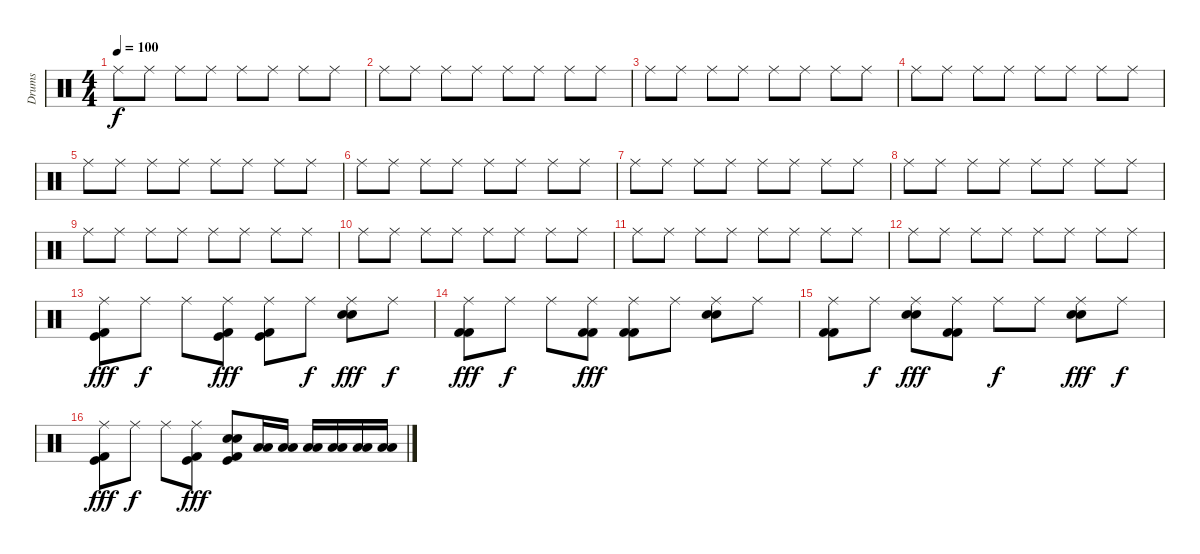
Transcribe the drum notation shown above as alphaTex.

\track ("Drums" "Drums") {instrument percussion}
\staff {score}
\articulation defaults
\ts (4 4)
\tempo 100
\clef neutral
\ks c "Ride (middle)".8{dy f} "Ride (middle)".8 "Ride (middle)".8 "Ride (middle)".8 "Ride (middle)".8 "Ride (middle)".8 "Ride (middle)".8 "Ride (middle)".8
|
"Ride (middle)".8 "Ride (middle)".8 "Ride (middle)".8 "Ride (middle)".8 "Ride (middle)".8 "Ride (middle)".8 "Ride (middle)".8 "Ride (middle)".8 |
"Ride (middle)".8 "Ride (middle)".8 "Ride (middle)".8 "Ride (middle)".8 "Ride (middle)".8 "Ride (middle)".8 "Ride (middle)".8 "Ride (middle)".8 |
"Ride (middle)".8 "Ride (middle)".8 "Ride (middle)".8 "Ride (middle)".8 "Ride (middle)".8 "Ride (middle)".8 "Ride (middle)".8 "Ride (middle)".8 |
"Ride (middle)".8 "Ride (middle)".8 "Ride (middle)".8 "Ride (middle)".8 "Ride (middle)".8 "Ride (middle)".8 "Ride (middle)".8 "Ride (middle)".8 |
"Ride (middle)".8 "Ride (middle)".8 "Ride (middle)".8 "Ride (middle)".8 "Ride (middle)".8 "Ride (middle)".8 "Ride (middle)".8 "Ride (middle)".8 |
"Ride (middle)".8 "Ride (middle)".8 "Ride (middle)".8 "Ride (middle)".8 "Ride (middle)".8 "Ride (middle)".8 "Ride (middle)".8 "Ride (middle)".8 |
"Ride (middle)".8 "Ride (middle)".8 "Ride (middle)".8 "Ride (middle)".8 "Ride (middle)".8 "Ride (middle)".8 "Ride (middle)".8 "Ride (middle)".8 |
"Ride (middle)".8 "Ride (middle)".8 "Ride (middle)".8 "Ride (middle)".8 "Ride (middle)".8 "Ride (middle)".8 "Ride (middle)".8 "Ride (middle)".8 |
"Ride (middle)".8 "Ride (middle)".8 "Ride (middle)".8 "Ride (middle)".8 "Ride (middle)".8 "Ride (middle)".8 "Ride (middle)".8 "Ride (middle)".8 |
"Ride (middle)".8 "Ride (middle)".8 "Ride (middle)".8 "Ride (middle)".8 "Ride (middle)".8 "Ride (middle)".8 "Ride (middle)".8 "Ride (middle)".8 |
"Ride (middle)".8 "Ride (middle)".8 "Ride (middle)".8 "Ride (middle)".8 "Ride (middle)".8 "Ride (middle)".8 "Ride (middle)".8 "Ride (middle)".8 |
("Ride (middle)" "Kick (hit) 2" "Kick (hit)").8{dy fff} "Ride (middle)".8{dy f} "Ride (middle)".8 ("Ride (middle)" "Kick (hit) 2" "Kick (hit)").8{dy fff} ("Ride (middle)" "Kick (hit) 2" "Kick (hit)").8 "Ride (middle)".8{dy f} ("Ride (middle)" "Electric Snare (hit)" "Electric Snare (hit)").8{dy fff} "Ride (middle)".8{dy f} |
("Ride (middle)" "Kick (hit) 2" "Kick (hit) 2").8{dy fff} "Ride (middle)".8{dy f} "Ride (middle)".8 ("Ride (middle)" "Kick (hit) 2" "Kick (hit) 2").8{dy fff} ("Ride (middle)" "Kick (hit) 2" "Kick (hit) 2").8 "Ride (middle)".8 ("Ride (middle)" "Electric Snare (hit)" "Electric Snare (hit)").8 "Ride (middle)".8 |
("Ride (middle)" "Kick (hit) 2" "Kick (hit) 2").8 "Ride (middle)".8{dy f} ("Ride (middle)" "Electric Snare (hit)" "Electric Snare (hit)").8{dy fff} ("Ride (middle)" "Kick (hit) 2" "Kick (hit) 2").8 "Ride (middle)".8{dy f} "Ride (middle)".8 ("Ride (middle)" "Electric Snare (hit)" "Electric Snare (hit)").8{dy fff} "Ride (middle)".8{dy f} |
("Ride (middle)" "Kick (hit) 2" "Kick (hit)").8{dy fff} "Ride (middle)".8{dy f} "Ride (middle)".8 ("Ride (middle)" "Kick (hit) 2" "Kick (hit)").8{dy fff} ("Electric Snare (hit)" "Snare (hit) 2" "Kick (hit) 2" "Kick (hit)").8 ("Low Tom (hit)" "Low Tom (hit)").16 ("Low Tom (hit)" "Low Tom (hit)").16 ("Low Tom (hit)" "Low Tom (hit)").16 ("Low Tom (hit)" "Low Tom (hit)").16 ("Low Tom (hit)" "Low Tom (hit)").16 ("Low Tom (hit)" "Low Tom (hit)").16
